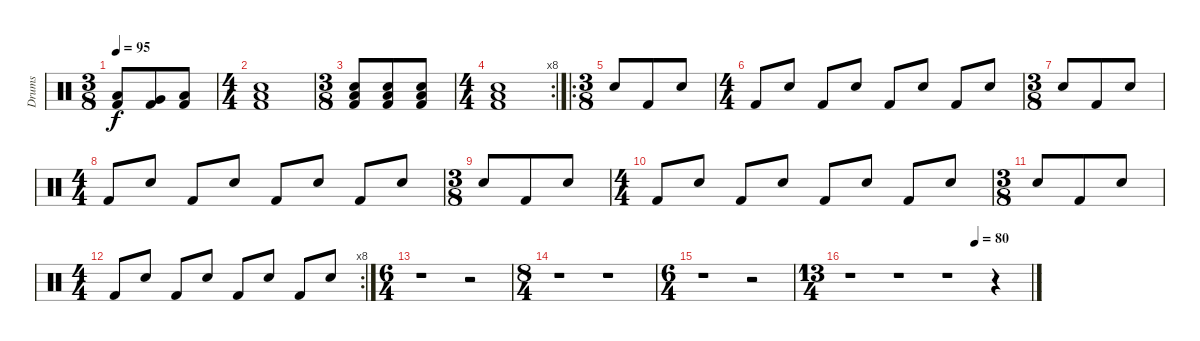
\track ("Drums" "Drums") {instrument percussion}
\staff {score}
\articulation defaults
\ts (3 8)
\tempo 95
\clef neutral
\ks c
("Low Tom (hit)" "Kick (hit) 2").8{dy f} ("Very Low Tom (hit)" "Kick (hit) 2").8 ("Low Floor Tom (hit)" "Kick (hit) 2").8 |
\ts (4 4)
("Low Floor Tom (hit)" "Snare (hit) 2" "Kick (hit) 2").1 |
\ts (3 8)
("Low Tom (hit)" "Snare (hit) 2" "Kick (hit) 2").8 ("Low Tom (hit)" "Snare (hit) 2" "Kick (hit) 2").8 ("Low Floor Tom (hit)" "Snare (hit) 2" "Kick (hit) 2").8 |
\rc 8
\ts (4 4)
("Low Floor Tom (hit)" "Snare (hit) 2" "Kick (hit) 2").1 |
\ro
\ts (3 8)
"Snare (hit) 2".8 "Kick (hit) 2".8 "Snare (hit) 2".8 |
\ts (4 4)
"Kick (hit) 2".8 "Snare (hit) 2".8 "Kick (hit) 2".8 "Snare (hit) 2".8 "Kick (hit) 2".8 "Snare (hit) 2".8 "Kick (hit) 2".8 "Snare (hit) 2".8 |
\ts (3 8)
"Snare (hit) 2".8 "Kick (hit) 2".8 "Snare (hit) 2".8 |
\ts (4 4)
"Kick (hit) 2".8 "Snare (hit) 2".8 "Kick (hit) 2".8 "Snare (hit) 2".8 "Kick (hit) 2".8 "Snare (hit) 2".8 "Kick (hit) 2".8 "Snare (hit) 2".8 |
\ts (3 8)
"Snare (hit) 2".8 "Kick (hit) 2".8 "Snare (hit) 2".8 |
\ts (4 4)
"Kick (hit) 2".8 "Snare (hit) 2".8 "Kick (hit) 2".8 "Snare (hit) 2".8 "Kick (hit) 2".8 "Snare (hit) 2".8 "Kick (hit) 2".8 "Snare (hit) 2".8 |
\ts (3 8)
"Snare (hit) 2".8 "Kick (hit) 2".8 "Snare (hit) 2".8 |
\rc 8
\ts (4 4)
"Kick (hit) 2".8 "Snare (hit) 2".8 "Kick (hit) 2".8 "Snare (hit) 2".8 "Kick (hit) 2".8 "Snare (hit) 2".8 "Kick (hit) 2".8 "Snare (hit) 2".8 |
\ts (6 4)
r.1 r.2 |
\ts (8 4)
r.1 r.1 |
\ts (6 4)
r.1 r.2 |
\ts (13 4)
\tempo (80 0.6923076923076923)
r.1 r.1 r.1 r.4
